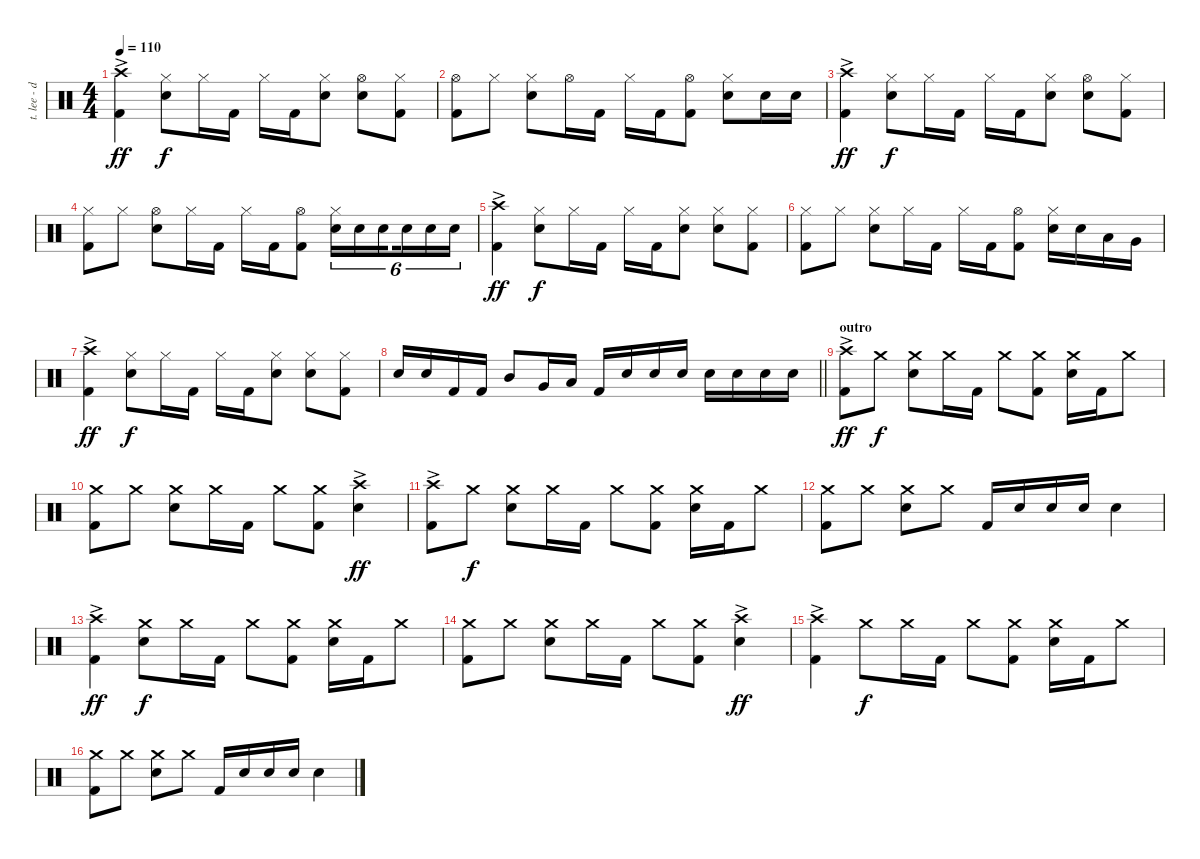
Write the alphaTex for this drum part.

\track ("t. lee - drums" "t. lee - d") {instrument percussion}
\staff {score}
\articulation defaults
\ts (4 4)
\tempo 110
\clef neutral
\ks c
("Crash high (hit)"{ac} "Kick (hit) 2"{ac}).4{dy ff} ("Hi-Hat (closed)" "Snare (hit) 2").8{dy f} "Hi-Hat (closed)".16 "Kick (hit) 2".16 "Hi-Hat (closed)".16 "Kick (hit) 2".16 ("Hi-Hat (closed)" "Snare (hit) 2").8 ("Hi-Hat (open)" "Snare (hit) 2").8 ("Hi-Hat (closed)" "Kick (hit) 2").8 |
("Hi-Hat (open)" "Kick (hit) 2").8 "Hi-Hat (closed)".8 ("Hi-Hat (closed)" "Snare (hit) 2").8 "Hi-Hat (open)".16 "Kick (hit) 2".16 "Hi-Hat (closed)".16 "Kick (hit) 2".16 ("Hi-Hat (open)" "Kick (hit) 2").8 ("Hi-Hat (closed)" "Snare (hit) 2").8 "Snare (hit) 2".16 "Snare (hit) 2".16 |
("Crash high (hit)"{ac} "Kick (hit) 2"{ac}).4{dy ff} ("Hi-Hat (closed)" "Snare (hit) 2").8{dy f} "Hi-Hat (closed)".16 "Kick (hit) 2".16 "Hi-Hat (closed)".16 "Kick (hit) 2".16 ("Hi-Hat (closed)" "Snare (hit) 2").8 ("Hi-Hat (open)" "Snare (hit) 2").8 ("Hi-Hat (closed)" "Kick (hit) 2").8 |
("Hi-Hat (closed)" "Kick (hit) 2").8 "Hi-Hat (closed)".8 ("Hi-Hat (open)" "Snare (hit) 2").8 "Hi-Hat (closed)".16 "Kick (hit) 2".16 "Hi-Hat (closed)".16 "Kick (hit) 2".16 ("Hi-Hat (open)" "Kick (hit) 2").8 ("Hi-Hat (closed)" "Snare (hit) 2").16{tu (6 4)} "Snare (hit) 2".16{tu (6 4)} "Snare (hit) 2".16{tu (6 4) beam splitsecondary} "Snare (hit) 2".16{tu (6 4)} "Snare (hit) 2".16{tu (6 4)} "Snare (hit) 2".16{tu (6 4)} |
("Crash high (hit)"{ac} "Kick (hit) 2"{ac}).4{dy ff} ("Hi-Hat (closed)" "Snare (hit) 2").8{dy f} "Hi-Hat (closed)".16 "Kick (hit) 2".16 "Hi-Hat (closed)".16 "Kick (hit) 2".16 ("Hi-Hat (closed)" "Snare (hit) 2").8 ("Hi-Hat (closed)" "Snare (hit) 2").8 ("Hi-Hat (closed)" "Kick (hit) 2").8 |
("Hi-Hat (closed)" "Kick (hit) 2").8 "Hi-Hat (closed)".8 ("Hi-Hat (closed)" "Snare (hit) 2").8 "Hi-Hat (closed)".16 "Kick (hit) 2".16 "Hi-Hat (closed)".16 "Kick (hit) 2".16 ("Hi-Hat (open)" "Kick (hit) 2").8 ("Hi-Hat (closed)" "Snare (hit) 2").16 "Snare (hit) 2".16 "Low Tom (hit)".16 "Very Low Tom (hit)".16 |
("Crash high (hit)"{ac} "Kick (hit) 2"{ac}).4{dy ff} ("Hi-Hat (closed)" "Snare (hit) 2").8{dy f} "Hi-Hat (closed)".16 "Kick (hit) 2".16 "Hi-Hat (closed)".16 "Kick (hit) 2".16 ("Hi-Hat (closed)" "Snare (hit) 2").8 ("Hi-Hat (closed)" "Snare (hit) 2").8 ("Hi-Hat (closed)" "Kick (hit) 2").8 |
\barLineRight lightlight "Snare (hit) 2".16 "Snare (hit) 2".16 "Kick (hit) 2".16 "Kick (hit) 2".16 "Mid Tom (hit)".8 "Very Low Tom (hit)".16 "Low Tom (hit)".16 "Kick (hit) 2".16 "Snare (hit) 2".16 "Snare (hit) 2".16 "Snare (hit) 2".16 "Snare (hit) 2".16 "Snare (hit) 2".16 "Snare (hit) 2".16 "Snare (hit) 2".16
|
\section ("" "outro")
("Crash high (hit)"{ac} "Kick (hit) 2"{ac}).8{dy ff} "Crash medium (hit)".8{dy f} ("Crash medium (hit)" "Snare (hit) 2").8 "Crash medium (hit)".16 "Kick (hit) 2".16 "Crash medium (hit)".8 ("Crash medium (hit)" "Kick (hit) 2").8 ("Crash medium (hit)" "Snare (hit) 2").16 "Kick (hit) 2".16 "Crash medium (hit)".8 |
("Crash medium (hit)" "Kick (hit) 2").8 "Crash medium (hit)".8 ("Crash medium (hit)" "Snare (hit) 2").8 "Crash medium (hit)".16 "Kick (hit) 2".16 "Crash medium (hit)".8 ("Crash medium (hit)" "Kick (hit) 2").8 ("Crash high (hit)"{ac} "Snare (hit) 2"{ac}).4{dy ff} |
("Crash high (hit)"{ac} "Kick (hit) 2"{ac}).8 "Crash medium (hit)".8{dy f} ("Crash medium (hit)" "Snare (hit) 2").8 "Crash medium (hit)".16 "Kick (hit) 2".16 "Crash medium (hit)".8 ("Crash medium (hit)" "Kick (hit) 2").8 ("Crash medium (hit)" "Snare (hit) 2").16 "Kick (hit) 2".16 "Crash medium (hit)".8 |
("Crash medium (hit)" "Kick (hit) 2").8 "Crash medium (hit)".8 ("Crash medium (hit)" "Snare (hit) 2").8 "Crash medium (hit)".8 "Kick (hit) 2".16 "Snare (hit) 2".16 "Snare (hit) 2".16 "Snare (hit) 2".16 "Snare (hit) 2".4 |
("Crash high (hit)"{ac} "Kick (hit) 2"{ac}).4{dy ff} ("Crash medium (hit)" "Snare (hit) 2").8{dy f} "Crash medium (hit)".16 "Kick (hit) 2".16 "Crash medium (hit)".8 ("Crash medium (hit)" "Kick (hit) 2").8 ("Crash medium (hit)" "Snare (hit) 2").16 "Kick (hit) 2".16 "Crash medium (hit)".8 |
("Crash medium (hit)" "Kick (hit) 2").8 "Crash medium (hit)".8 ("Crash medium (hit)" "Snare (hit) 2").8 "Crash medium (hit)".16 "Kick (hit) 2".16 "Crash medium (hit)".8 ("Crash medium (hit)" "Kick (hit) 2").8 ("Crash high (hit)"{ac} "Snare (hit) 2"{ac}).4{dy ff} |
("Crash high (hit)"{ac} "Kick (hit) 2"{ac}).4 "Crash medium (hit)".8{dy f} "Crash medium (hit)".16 "Kick (hit) 2".16 "Crash medium (hit)".8 ("Crash medium (hit)" "Kick (hit) 2").8 ("Crash medium (hit)" "Snare (hit) 2").16 "Kick (hit) 2".16 "Crash medium (hit)".8 |
("Crash medium (hit)" "Kick (hit) 2").8 "Crash medium (hit)".8 ("Crash medium (hit)" "Snare (hit) 2").8 "Crash medium (hit)".8 "Kick (hit) 2".16 "Snare (hit) 2".16 "Snare (hit) 2".16 "Snare (hit) 2".16 "Snare (hit) 2".4
